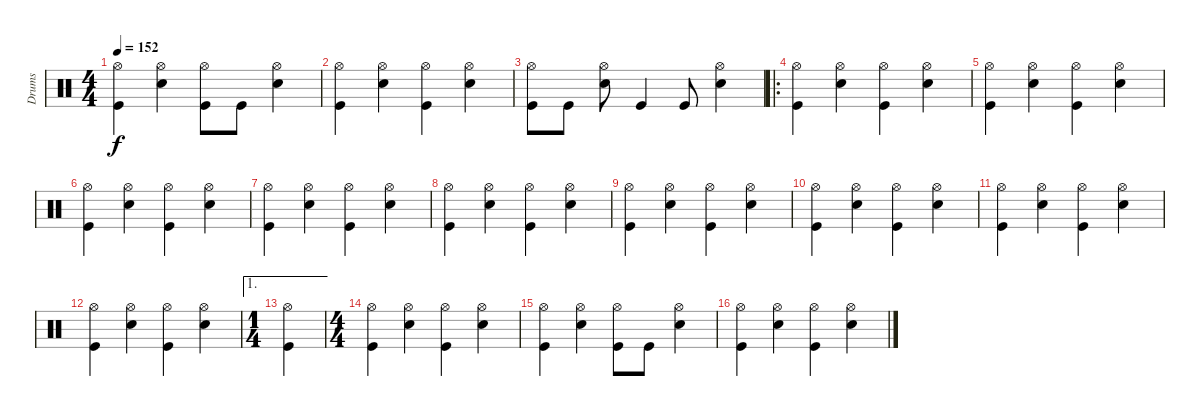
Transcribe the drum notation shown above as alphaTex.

\track ("Drums" "Drums") {instrument percussion}
\staff {score}
\articulation defaults
\ts (4 4)
\tempo 152
\clef neutral
\ks c
("Kick (hit)" "Hi-Hat (open)").4{dy f} ("Electric Snare (hit)" "Hi-Hat (open)").4 ("Kick (hit)" "Hi-Hat (open)").8 "Kick (hit)".8 ("Electric Snare (hit)" "Hi-Hat (open)").4 |
("Kick (hit)" "Hi-Hat (open)").4 ("Electric Snare (hit)" "Hi-Hat (open)").4 ("Kick (hit)" "Hi-Hat (open)").4 ("Electric Snare (hit)" "Hi-Hat (open)").4 |
("Kick (hit)" "Hi-Hat (open)").8 "Kick (hit)".8 ("Electric Snare (hit)" "Hi-Hat (open)").8 "Kick (hit)".4 "Kick (hit)".8 ("Electric Snare (hit)" "Hi-Hat (open)").4 |
\ro
("Kick (hit)" "Hi-Hat (open)").4 ("Electric Snare (hit)" "Hi-Hat (open)").4 ("Kick (hit)" "Hi-Hat (open)").4 ("Electric Snare (hit)" "Hi-Hat (open)").4 |
("Kick (hit)" "Hi-Hat (open)").4 ("Electric Snare (hit)" "Hi-Hat (open)").4 ("Kick (hit)" "Hi-Hat (open)").4 ("Electric Snare (hit)" "Hi-Hat (open)").4 |
("Kick (hit)" "Hi-Hat (open)").4 ("Electric Snare (hit)" "Hi-Hat (open)").4 ("Kick (hit)" "Hi-Hat (open)").4 ("Electric Snare (hit)" "Hi-Hat (open)").4 |
("Kick (hit)" "Hi-Hat (open)").4 ("Electric Snare (hit)" "Hi-Hat (open)").4 ("Kick (hit)" "Hi-Hat (open)").4 ("Electric Snare (hit)" "Hi-Hat (open)").4 |
("Kick (hit)" "Hi-Hat (open)").4 ("Electric Snare (hit)" "Hi-Hat (open)").4 ("Kick (hit)" "Hi-Hat (open)").4 ("Electric Snare (hit)" "Hi-Hat (open)").4 |
("Kick (hit)" "Hi-Hat (open)").4 ("Electric Snare (hit)" "Hi-Hat (open)").4 ("Kick (hit)" "Hi-Hat (open)").4 ("Electric Snare (hit)" "Hi-Hat (open)").4 |
("Kick (hit)" "Hi-Hat (open)").4 ("Electric Snare (hit)" "Hi-Hat (open)").4 ("Kick (hit)" "Hi-Hat (open)").4 ("Electric Snare (hit)" "Hi-Hat (open)").4 |
("Kick (hit)" "Hi-Hat (open)").4 ("Electric Snare (hit)" "Hi-Hat (open)").4 ("Kick (hit)" "Hi-Hat (open)").4 ("Electric Snare (hit)" "Hi-Hat (open)").4 |
("Kick (hit)" "Hi-Hat (open)").4 ("Electric Snare (hit)" "Hi-Hat (open)").4 ("Kick (hit)" "Hi-Hat (open)").4 ("Electric Snare (hit)" "Hi-Hat (open)").4 |
\ae 1
\ts (1 4)
("Kick (hit)" "Hi-Hat (open)").4 |
\ts (4 4)
("Kick (hit)" "Hi-Hat (open)").4 ("Electric Snare (hit)" "Hi-Hat (open)").4 ("Kick (hit)" "Hi-Hat (open)").4 ("Electric Snare (hit)" "Hi-Hat (open)").4 |
("Kick (hit)" "Hi-Hat (open)").4 ("Electric Snare (hit)" "Hi-Hat (open)").4 ("Kick (hit)" "Hi-Hat (open)").8 "Kick (hit)".8 ("Electric Snare (hit)" "Hi-Hat (open)").4 |
("Kick (hit)" "Hi-Hat (open)").4 ("Electric Snare (hit)" "Hi-Hat (open)").4 ("Kick (hit)" "Hi-Hat (open)").4 ("Electric Snare (hit)" "Hi-Hat (open)").4
